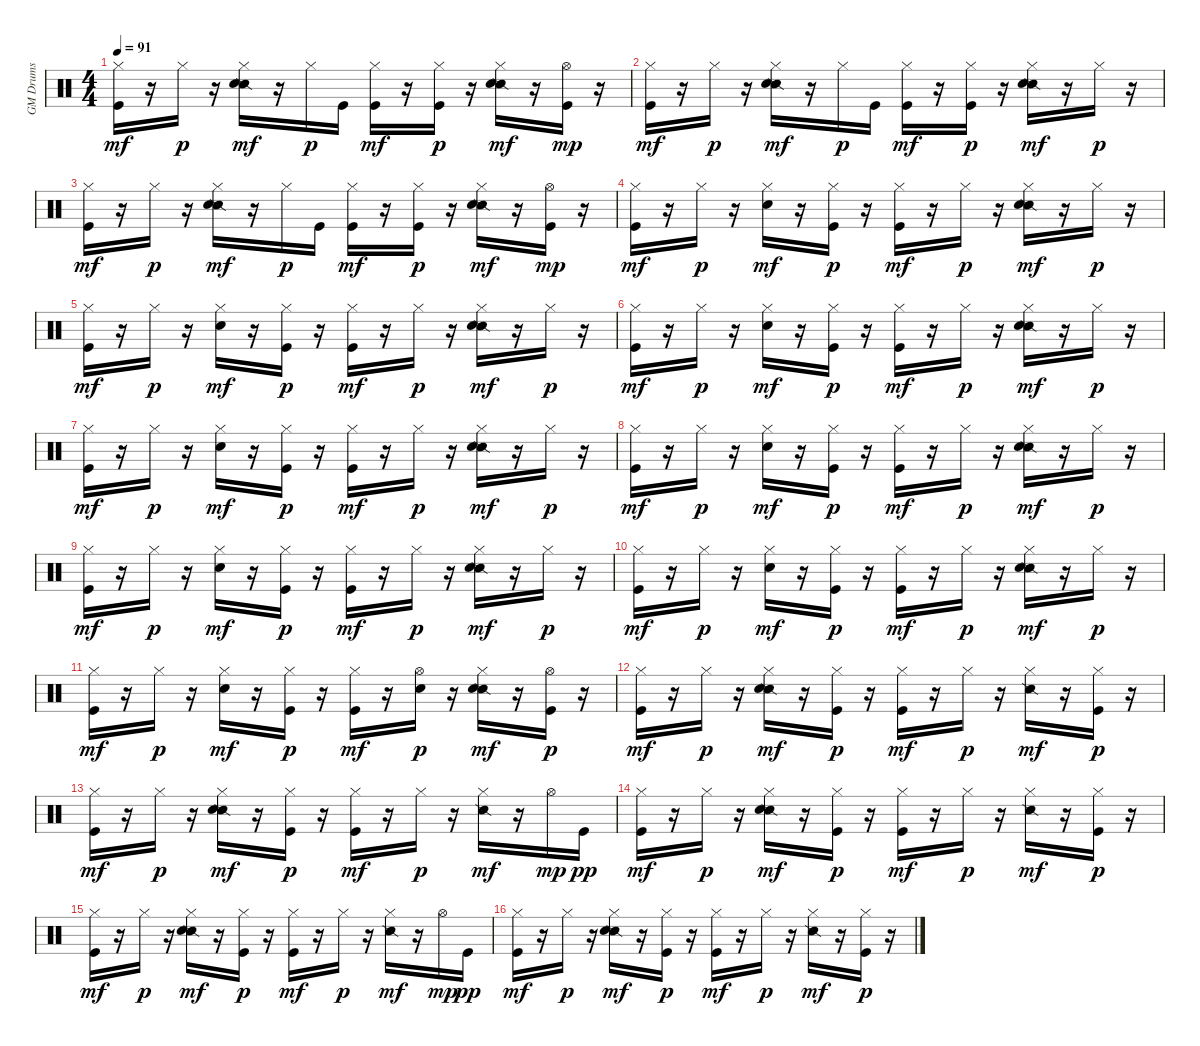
\track ("GM Drums" "GM Drums") {instrument percussion}
\staff {score}
\articulation defaults
\ts (4 4)
\tempo 91
\clef neutral
\ks c
("Kick (hit)" "Hi-Hat (closed)").16{dy mf} r.16 "Hi-Hat (closed)".16{dy p} r.16 ("Snare (side stick) 2" "Electric Snare (hit)" "Hi-Hat (closed)").16{dy mf} r.16 "Hi-Hat (closed)".16{dy p} "Kick (hit)".16 ("Kick (hit)" "Hi-Hat (closed)").16{dy mf} r.16 ("Kick (hit)" "Hi-Hat (closed)").16{dy p} r.16 ("Snare (side stick) 2" "Electric Snare (hit)" "Hi-Hat (closed)").16{dy mf} r.16 ("Kick (hit)" "Hi-Hat (open)").16{dy mp} r.16 |
("Kick (hit)" "Hi-Hat (closed)").16{dy mf} r.16 "Hi-Hat (closed)".16{dy p} r.16 ("Snare (side stick) 2" "Electric Snare (hit)" "Hi-Hat (closed)").16{dy mf} r.16 "Hi-Hat (closed)".16{dy p} "Kick (hit)".16 ("Kick (hit)" "Hi-Hat (closed)").16{dy mf} r.16 ("Kick (hit)" "Hi-Hat (closed)").16{dy p} r.16 ("Snare (side stick) 2" "Electric Snare (hit)" "Hi-Hat (closed)").16{dy mf} r.16 "Hi-Hat (closed)".16{dy p} r.16 |
("Kick (hit)" "Hi-Hat (closed)").16{dy mf} r.16 "Hi-Hat (closed)".16{dy p} r.16 ("Snare (side stick) 2" "Electric Snare (hit)" "Hi-Hat (closed)").16{dy mf} r.16 "Hi-Hat (closed)".16{dy p} "Kick (hit)".16 ("Kick (hit)" "Hi-Hat (closed)").16{dy mf} r.16 ("Kick (hit)" "Hi-Hat (closed)").16{dy p} r.16 ("Snare (side stick) 2" "Electric Snare (hit)" "Hi-Hat (closed)").16{dy mf} r.16 ("Kick (hit)" "Hi-Hat (open)").16{dy mp} r.16 |
("Kick (hit)" "Hi-Hat (closed)").16{dy mf} r.16 "Hi-Hat (closed)".16{dy p} r.16 ("Electric Snare (hit)" "Hi-Hat (closed)").16{dy mf} r.16 ("Kick (hit)" "Hi-Hat (closed)").16{dy p} r.16 ("Kick (hit)" "Hi-Hat (closed)").16{dy mf} r.16 "Hi-Hat (closed)".16{dy p} r.16 ("Snare (side stick) 2" "Electric Snare (hit)" "Hi-Hat (closed)").16{dy mf} r.16 "Hi-Hat (closed)".16{dy p} r.16 |
("Kick (hit)" "Hi-Hat (closed)").16{dy mf} r.16 "Hi-Hat (closed)".16{dy p} r.16 ("Electric Snare (hit)" "Hi-Hat (closed)").16{dy mf} r.16 ("Kick (hit)" "Hi-Hat (closed)").16{dy p} r.16 ("Kick (hit)" "Hi-Hat (closed)").16{dy mf} r.16 "Hi-Hat (closed)".16{dy p} r.16 ("Snare (side stick) 2" "Electric Snare (hit)" "Hi-Hat (closed)").16{dy mf} r.16 "Hi-Hat (closed)".16{dy p} r.16 |
("Kick (hit)" "Hi-Hat (closed)").16{dy mf} r.16 "Hi-Hat (closed)".16{dy p} r.16 ("Electric Snare (hit)" "Hi-Hat (closed)").16{dy mf} r.16 ("Kick (hit)" "Hi-Hat (closed)").16{dy p} r.16 ("Kick (hit)" "Hi-Hat (closed)").16{dy mf} r.16 "Hi-Hat (closed)".16{dy p} r.16 ("Snare (side stick) 2" "Electric Snare (hit)" "Hi-Hat (closed)").16{dy mf} r.16 "Hi-Hat (closed)".16{dy p} r.16 |
("Kick (hit)" "Hi-Hat (closed)").16{dy mf} r.16 "Hi-Hat (closed)".16{dy p} r.16 ("Electric Snare (hit)" "Hi-Hat (closed)").16{dy mf} r.16 ("Kick (hit)" "Hi-Hat (closed)").16{dy p} r.16 ("Kick (hit)" "Hi-Hat (closed)").16{dy mf} r.16 "Hi-Hat (closed)".16{dy p} r.16 ("Snare (side stick) 2" "Electric Snare (hit)" "Hi-Hat (closed)").16{dy mf} r.16 "Hi-Hat (closed)".16{dy p} r.16 |
("Kick (hit)" "Hi-Hat (closed)").16{dy mf} r.16 "Hi-Hat (closed)".16{dy p} r.16 ("Electric Snare (hit)" "Hi-Hat (closed)").16{dy mf} r.16 ("Kick (hit)" "Hi-Hat (closed)").16{dy p} r.16 ("Kick (hit)" "Hi-Hat (closed)").16{dy mf} r.16 "Hi-Hat (closed)".16{dy p} r.16 ("Snare (side stick) 2" "Electric Snare (hit)" "Hi-Hat (closed)").16{dy mf} r.16 "Hi-Hat (closed)".16{dy p} r.16 |
("Kick (hit)" "Hi-Hat (closed)").16{dy mf} r.16 "Hi-Hat (closed)".16{dy p} r.16 ("Electric Snare (hit)" "Hi-Hat (closed)").16{dy mf} r.16 ("Kick (hit)" "Hi-Hat (closed)").16{dy p} r.16 ("Kick (hit)" "Hi-Hat (closed)").16{dy mf} r.16 "Hi-Hat (closed)".16{dy p} r.16 ("Snare (side stick) 2" "Electric Snare (hit)" "Hi-Hat (closed)").16{dy mf} r.16 "Hi-Hat (closed)".16{dy p} r.16 |
("Kick (hit)" "Hi-Hat (closed)").16{dy mf} r.16 "Hi-Hat (closed)".16{dy p} r.16 ("Electric Snare (hit)" "Hi-Hat (closed)").16{dy mf} r.16 ("Kick (hit)" "Hi-Hat (closed)").16{dy p} r.16 ("Kick (hit)" "Hi-Hat (closed)").16{dy mf} r.16 "Hi-Hat (closed)".16{dy p} r.16 ("Snare (side stick) 2" "Electric Snare (hit)" "Hi-Hat (closed)").16{dy mf} r.16 "Hi-Hat (closed)".16{dy p} r.16 |
("Kick (hit)" "Hi-Hat (closed)").16{dy mf} r.16 "Hi-Hat (closed)".16{dy p} r.16 ("Electric Snare (hit)" "Hi-Hat (closed)").16{dy mf} r.16 ("Kick (hit)" "Hi-Hat (closed)").16{dy p} r.16 ("Kick (hit)" "Hi-Hat (closed)").16{dy mf} r.16 ("Electric Snare (hit)" "Hi-Hat (open)").16{dy p} r.16 ("Snare (side stick) 2" "Electric Snare (hit)" "Hi-Hat (closed)").16{dy mf} r.16 ("Kick (hit)" "Hi-Hat (open)").16{dy p} r.16 |
("Kick (hit)" "Hi-Hat (closed)").16{dy mf} r.16 "Hi-Hat (closed)".16{dy p} r.16 ("Snare (side stick) 2" "Electric Snare (hit)" "Hi-Hat (closed)").16{dy mf} r.16 ("Kick (hit)" "Hi-Hat (closed)").16{dy p} r.16 ("Kick (hit)" "Hi-Hat (closed)").16{dy mf} r.16 "Hi-Hat (closed)".16{dy p} r.16 ("Snare (side stick) 2" "Hi-Hat (closed)").16{dy mf} r.16 ("Kick (hit)" "Hi-Hat (closed)").16{dy p} r.16 |
("Kick (hit)" "Hi-Hat (closed)").16{dy mf} r.16 "Hi-Hat (closed)".16{dy p} r.16 ("Snare (side stick) 2" "Electric Snare (hit)" "Hi-Hat (closed)").16{dy mf} r.16 ("Kick (hit)" "Hi-Hat (closed)").16{dy p} r.16 ("Kick (hit)" "Hi-Hat (closed)").16{dy mf} r.16 "Hi-Hat (closed)".16{dy p} r.16 ("Snare (side stick) 2" "Hi-Hat (closed)").16{dy mf} r.16 "Hi-Hat (open)".16{dy mp} "Kick (hit)".16{dy pp} |
("Kick (hit)" "Hi-Hat (closed)").16{dy mf} r.16 "Hi-Hat (closed)".16{dy p} r.16 ("Snare (side stick) 2" "Electric Snare (hit)" "Hi-Hat (closed)").16{dy mf} r.16 ("Kick (hit)" "Hi-Hat (closed)").16{dy p} r.16 ("Kick (hit)" "Hi-Hat (closed)").16{dy mf} r.16 "Hi-Hat (closed)".16{dy p} r.16 ("Snare (side stick) 2" "Hi-Hat (closed)").16{dy mf} r.16 ("Kick (hit)" "Hi-Hat (closed)").16{dy p} r.16 |
("Kick (hit)" "Hi-Hat (closed)").16{dy mf} r.16 "Hi-Hat (closed)".16{dy p} r.16 ("Snare (side stick) 2" "Electric Snare (hit)" "Hi-Hat (closed)").16{dy mf} r.16 ("Kick (hit)" "Hi-Hat (closed)").16{dy p} r.16 ("Kick (hit)" "Hi-Hat (closed)").16{dy mf} r.16 "Hi-Hat (closed)".16{dy p} r.16 ("Snare (side stick) 2" "Hi-Hat (closed)").16{dy mf} r.16 "Hi-Hat (open)".16{dy mp} "Kick (hit)".16{dy pp} |
("Kick (hit)" "Hi-Hat (closed)").16{dy mf} r.16 "Hi-Hat (closed)".16{dy p} r.16 ("Snare (side stick) 2" "Electric Snare (hit)" "Hi-Hat (closed)").16{dy mf} r.16 ("Kick (hit)" "Hi-Hat (closed)").16{dy p} r.16 ("Kick (hit)" "Hi-Hat (closed)").16{dy mf} r.16 "Hi-Hat (closed)".16{dy p} r.16 ("Snare (side stick) 2" "Hi-Hat (closed)").16{dy mf} r.16 ("Kick (hit)" "Hi-Hat (closed)").16{dy p} r.16
